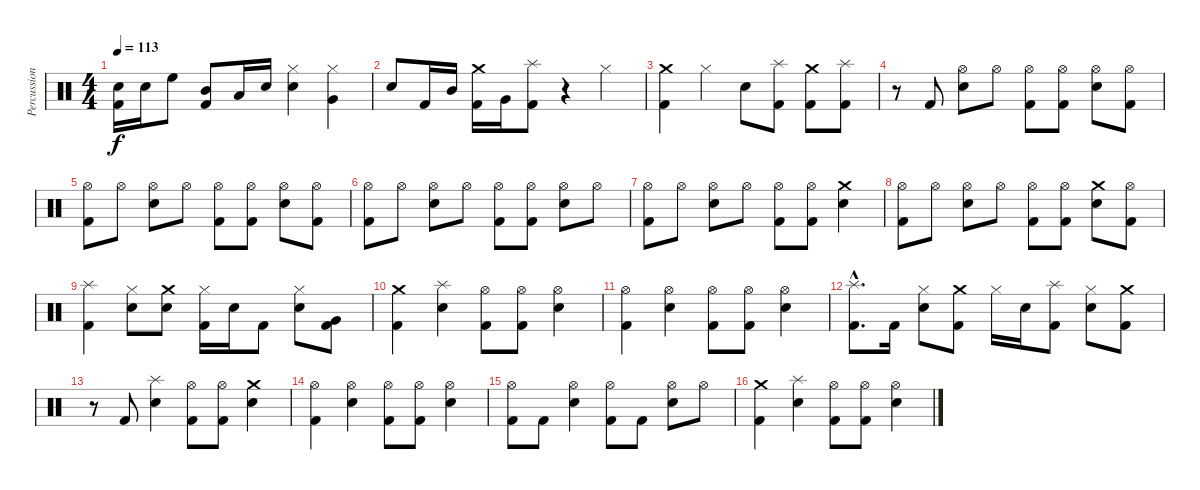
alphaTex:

\track ("Percussion" "Percussion") {instrument percussion}
\staff {score}
\articulation defaults
\ts (4 4)
\tempo 113
\clef neutral
\ks c
("Snare (hit) 2" "Kick (hit) 2").16{dy f} "Snare (hit) 2".16 "High Floor Tom (hit)".8 ("Mid Tom (hit)" "Kick (hit) 2").8 "Low Tom (hit)".16 "Snare (hit) 2".16 ("Hi-Hat (closed)" "Snare (hit) 2").4 ("Hi-Hat (closed)" "Very Low Tom (hit)").4 |
"Snare (hit) 2".8 "Kick (hit) 2".16 "Mid Tom (hit)".16 ("Crash medium (hit)" "Kick (hit) 2").16 "Very Low Tom (hit)".16 ("Splash (hit)" "Kick (hit) 2").8 r.4 "Hi-Hat (closed)".4 |
("Crash medium (hit)" "Kick (hit) 2").4 "Hi-Hat (closed)".4 "Snare (hit) 2".8 ("Splash (hit)" "Kick (hit) 2").8 ("Crash medium (hit)" "Kick (hit) 2").8 ("Splash (hit)" "Kick (hit) 2").8 |
r.8 "Kick (hit) 2".8 ("Hi-Hat (open)" "Snare (hit) 2").8 "Hi-Hat (open)".8 ("Hi-Hat (open)" "Kick (hit) 2").8 ("Hi-Hat (open)" "Kick (hit) 2").8 ("Hi-Hat (open)" "Snare (hit) 2").8 ("Hi-Hat (open)" "Kick (hit) 2").8 |
("Hi-Hat (open)" "Kick (hit) 2").8 "Hi-Hat (open)".8 ("Hi-Hat (open)" "Snare (hit) 2").8 "Hi-Hat (open)".8 ("Hi-Hat (open)" "Kick (hit) 2").8 ("Hi-Hat (open)" "Kick (hit) 2").8 ("Hi-Hat (open)" "Snare (hit) 2").8 ("Hi-Hat (open)" "Kick (hit) 2").8 |
("Hi-Hat (open)" "Kick (hit) 2").8 "Hi-Hat (open)".8 ("Hi-Hat (open)" "Snare (hit) 2").8 "Hi-Hat (open)".8 ("Hi-Hat (open)" "Kick (hit) 2").8 ("Hi-Hat (open)" "Kick (hit) 2").8 ("Hi-Hat (open)" "Snare (hit) 2").8 "Hi-Hat (open)".8 |
("Hi-Hat (open)" "Kick (hit) 2").8 "Hi-Hat (open)".8 ("Hi-Hat (open)" "Snare (hit) 2").8 "Hi-Hat (open)".8 ("Hi-Hat (open)" "Kick (hit) 2").8 ("Hi-Hat (open)" "Kick (hit) 2").8 ("Crash medium (hit)" "Snare (hit) 2").4 |
("Hi-Hat (open)" "Kick (hit) 2").8 "Hi-Hat (open)".8 ("Hi-Hat (open)" "Snare (hit) 2").8 "Hi-Hat (open)".8 ("Hi-Hat (open)" "Kick (hit) 2").8 ("Hi-Hat (open)" "Kick (hit) 2").8 ("Crash medium (hit)" "Snare (hit) 2").8 ("Hi-Hat (open)" "Kick (hit) 2").8 |
("Splash (hit)" "Kick (hit) 2").4 ("Hi-Hat (closed)" "Snare (hit) 2").8 ("Crash medium (hit)" "Snare (hit) 2").8 ("Hi-Hat (closed)" "Kick (hit) 2").16 "Snare (hit) 2".16 "Kick (hit) 2".8 ("Hi-Hat (closed)" "Snare (hit) 2").8 ("Very Low Tom (hit)" "Kick (hit) 2").8 |
("Crash medium (hit)" "Kick (hit) 2").4 ("Splash (hit)" "Snare (hit) 2").4 ("Hi-Hat (open)" "Kick (hit) 2").8 ("Hi-Hat (open)" "Kick (hit) 2").8 ("Hi-Hat (open)" "Snare (hit) 2").4 |
("Hi-Hat (open)" "Kick (hit) 2").4 ("Hi-Hat (open)" "Snare (hit) 2").4 ("Hi-Hat (open)" "Kick (hit) 2").8 ("Hi-Hat (open)" "Kick (hit) 2").8 ("Hi-Hat (open)" "Snare (hit) 2").4 |
("Splash (hit)"{hac} "Kick (hit) 2"{hac}).8{d} "Kick (hit) 2".16 ("Hi-Hat (closed)" "Snare (hit) 2").8 ("Crash medium (hit)" "Kick (hit) 2").8 "Hi-Hat (closed)".16 "Snare (hit) 2".16 ("Splash (hit)" "Kick (hit) 2").8 ("Hi-Hat (closed)" "Snare (hit) 2").8 ("Crash medium (hit)" "Kick (hit) 2").8 |
r.8 "Kick (hit) 2".8 ("Splash (hit)" "Snare (hit) 2").4 ("Hi-Hat (open)" "Kick (hit) 2").8 ("Hi-Hat (open)" "Kick (hit) 2").8 ("Crash medium (hit)" "Snare (hit) 2").4 |
("Hi-Hat (open)" "Kick (hit) 2").4 ("Hi-Hat (open)" "Snare (hit) 2").4 ("Hi-Hat (open)" "Kick (hit) 2").8 ("Hi-Hat (open)" "Kick (hit) 2").8 ("Hi-Hat (open)" "Snare (hit) 2").4 |
("Hi-Hat (open)" "Kick (hit) 2").8 "Kick (hit) 2".8 ("Hi-Hat (open)" "Snare (hit) 2").4 ("Hi-Hat (open)" "Kick (hit) 2").8 "Kick (hit) 2".8 ("Hi-Hat (open)" "Snare (hit) 2").8 "Hi-Hat (open)".8 |
("Crash medium (hit)" "Kick (hit) 2").4 ("Splash (hit)" "Snare (hit) 2").4 ("Hi-Hat (open)" "Kick (hit) 2").8 ("Hi-Hat (open)" "Kick (hit) 2").8 ("Hi-Hat (open)" "Snare (hit) 2").4
